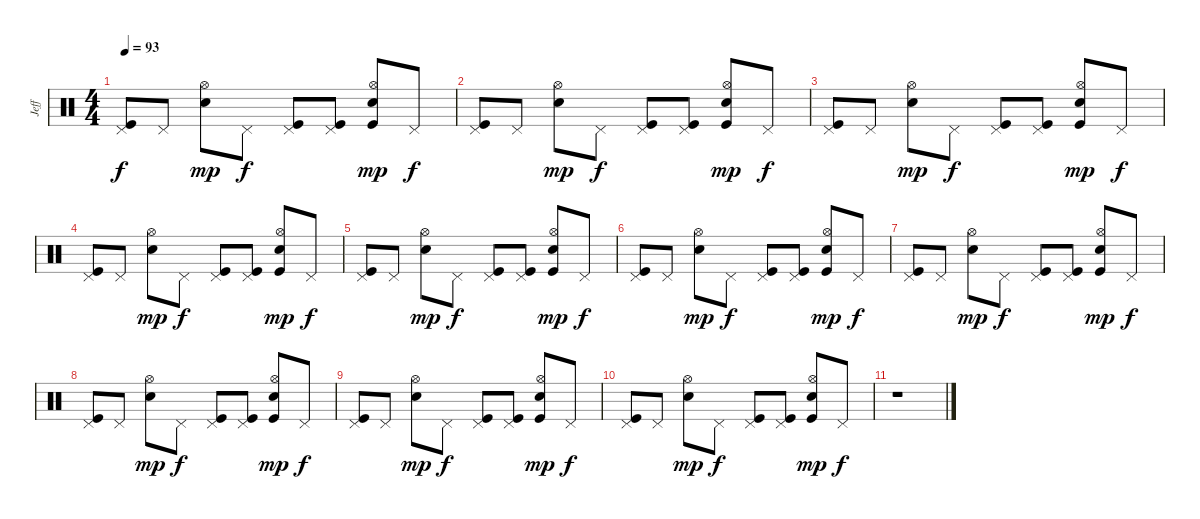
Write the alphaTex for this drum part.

\track ("Jeff" "Jeff") {instrument percussion}
\staff {score}
\articulation defaults
\ts (4 4)
\tempo 93
\clef neutral
\ks c
("Pedal Hi-Hat (hit)" "Kick (hit)").8{dy f} "Pedal Hi-Hat (hit)".8 ("Hi-Hat (open)" "Snare (hit) 2").8{dy mp} "Pedal Hi-Hat (hit)".8{dy f} ("Pedal Hi-Hat (hit)" "Kick (hit)").8 ("Pedal Hi-Hat (hit)" "Kick (hit)").8 ("Hi-Hat (open)" "Snare (hit) 2" "Kick (hit)").8{dy mp} "Pedal Hi-Hat (hit)".8{dy f} |
("Pedal Hi-Hat (hit)" "Kick (hit)").8 "Pedal Hi-Hat (hit)".8 ("Hi-Hat (open)" "Snare (hit) 2").8{dy mp} "Pedal Hi-Hat (hit)".8{dy f} ("Pedal Hi-Hat (hit)" "Kick (hit)").8 ("Pedal Hi-Hat (hit)" "Kick (hit)").8 ("Hi-Hat (open)" "Snare (hit) 2" "Kick (hit)").8{dy mp} "Pedal Hi-Hat (hit)".8{dy f} |
("Pedal Hi-Hat (hit)" "Kick (hit)").8 "Pedal Hi-Hat (hit)".8 ("Hi-Hat (open)" "Snare (hit) 2").8{dy mp} "Pedal Hi-Hat (hit)".8{dy f} ("Pedal Hi-Hat (hit)" "Kick (hit)").8 ("Pedal Hi-Hat (hit)" "Kick (hit)").8 ("Hi-Hat (open)" "Snare (hit) 2" "Kick (hit)").8{dy mp} "Pedal Hi-Hat (hit)".8{dy f} |
("Pedal Hi-Hat (hit)" "Kick (hit)").8 "Pedal Hi-Hat (hit)".8 ("Hi-Hat (open)" "Snare (hit) 2").8{dy mp} "Pedal Hi-Hat (hit)".8{dy f} ("Pedal Hi-Hat (hit)" "Kick (hit)").8 ("Pedal Hi-Hat (hit)" "Kick (hit)").8 ("Hi-Hat (open)" "Snare (hit) 2" "Kick (hit)").8{dy mp} "Pedal Hi-Hat (hit)".8{dy f} |
("Pedal Hi-Hat (hit)" "Kick (hit)").8 "Pedal Hi-Hat (hit)".8 ("Hi-Hat (open)" "Snare (hit) 2").8{dy mp} "Pedal Hi-Hat (hit)".8{dy f} ("Pedal Hi-Hat (hit)" "Kick (hit)").8 ("Pedal Hi-Hat (hit)" "Kick (hit)").8 ("Hi-Hat (open)" "Snare (hit) 2" "Kick (hit)").8{dy mp} "Pedal Hi-Hat (hit)".8{dy f} |
("Pedal Hi-Hat (hit)" "Kick (hit)").8 "Pedal Hi-Hat (hit)".8 ("Hi-Hat (open)" "Snare (hit) 2").8{dy mp} "Pedal Hi-Hat (hit)".8{dy f} ("Pedal Hi-Hat (hit)" "Kick (hit)").8 ("Pedal Hi-Hat (hit)" "Kick (hit)").8 ("Hi-Hat (open)" "Snare (hit) 2" "Kick (hit)").8{dy mp} "Pedal Hi-Hat (hit)".8{dy f} |
("Pedal Hi-Hat (hit)" "Kick (hit)").8 "Pedal Hi-Hat (hit)".8 ("Hi-Hat (open)" "Snare (hit) 2").8{dy mp} "Pedal Hi-Hat (hit)".8{dy f} ("Pedal Hi-Hat (hit)" "Kick (hit)").8 ("Pedal Hi-Hat (hit)" "Kick (hit)").8 ("Hi-Hat (open)" "Snare (hit) 2" "Kick (hit)").8{dy mp} "Pedal Hi-Hat (hit)".8{dy f} |
("Pedal Hi-Hat (hit)" "Kick (hit)").8 "Pedal Hi-Hat (hit)".8 ("Hi-Hat (open)" "Snare (hit) 2").8{dy mp} "Pedal Hi-Hat (hit)".8{dy f} ("Pedal Hi-Hat (hit)" "Kick (hit)").8 ("Pedal Hi-Hat (hit)" "Kick (hit)").8 ("Hi-Hat (open)" "Snare (hit) 2" "Kick (hit)").8{dy mp} "Pedal Hi-Hat (hit)".8{dy f} |
("Pedal Hi-Hat (hit)" "Kick (hit)").8 "Pedal Hi-Hat (hit)".8 ("Hi-Hat (open)" "Snare (hit) 2").8{dy mp} "Pedal Hi-Hat (hit)".8{dy f} ("Pedal Hi-Hat (hit)" "Kick (hit)").8 ("Pedal Hi-Hat (hit)" "Kick (hit)").8 ("Hi-Hat (open)" "Snare (hit) 2" "Kick (hit)").8{dy mp} "Pedal Hi-Hat (hit)".8{dy f} |
("Pedal Hi-Hat (hit)" "Kick (hit)").8 "Pedal Hi-Hat (hit)".8 ("Hi-Hat (open)" "Snare (hit) 2").8{dy mp} "Pedal Hi-Hat (hit)".8{dy f} ("Pedal Hi-Hat (hit)" "Kick (hit)").8 ("Pedal Hi-Hat (hit)" "Kick (hit)").8 ("Hi-Hat (open)" "Snare (hit) 2" "Kick (hit)").8{dy mp} "Pedal Hi-Hat (hit)".8{dy f} |
r.1
